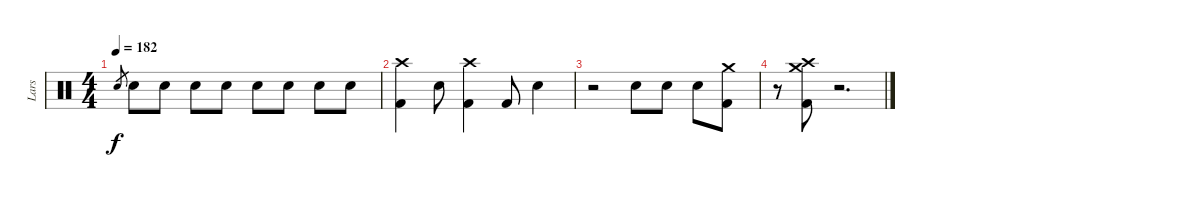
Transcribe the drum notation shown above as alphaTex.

\track ("Lars" "Lars") {instrument percussion}
\staff {score}
\articulation defaults
\ts (4 4)
\tempo 182
\clef neutral
\ks c "Snare (hit) 2".8{gr dy f} "Snare (hit) 2".8 "Snare (hit) 2".8 "Snare (hit) 2".8 "Snare (hit) 2".8 "Snare (hit) 2".8 "Snare (hit) 2".8 "Snare (hit) 2".8 "Snare (hit) 2".8
|
("Crash high (hit)" "Kick (hit) 2").4 "Snare (hit) 2".8 ("Crash high (hit)" "Kick (hit) 2").4 "Kick (hit) 2".8 "Snare (hit) 2".4 |
r.2 "Snare (hit) 2".8 "Snare (hit) 2".8 "Snare (hit) 2".8 ("Crash medium (hit)" "Kick (hit) 2").8 |
r.8 ("Crash medium (hit)" "Crash high (hit)" "Kick (hit) 2").8 r.2{d}
